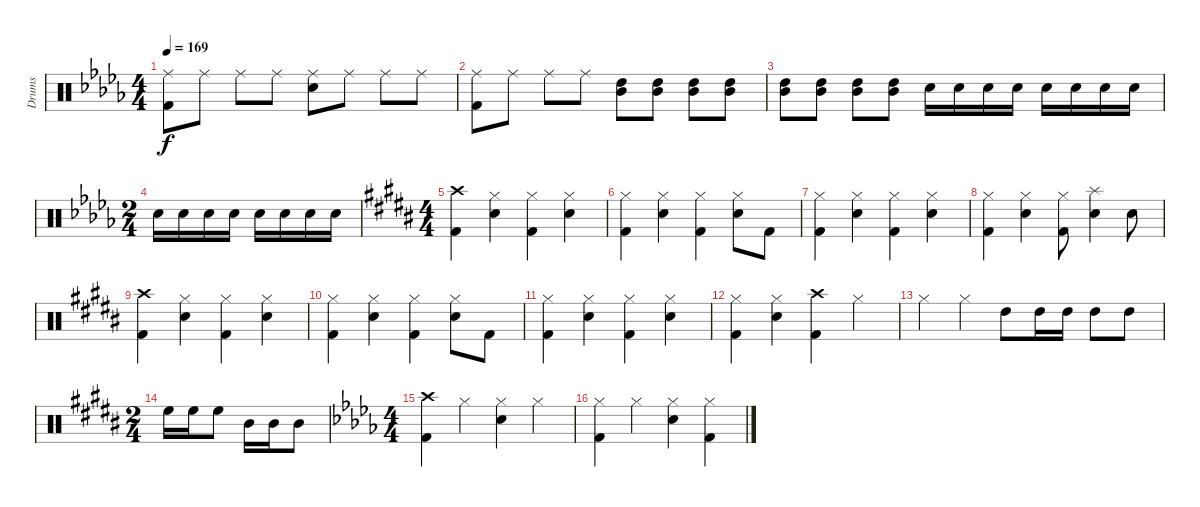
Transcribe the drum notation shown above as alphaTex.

\track ("Drums" "Drums") {instrument percussion}
\staff {score}
\articulation defaults
\ts (4 4)
\tempo 169
\clef neutral
\ks db
("Ride (middle)" "Kick (hit) 2").8{dy f} "Ride (middle)".8 "Ride (middle)".8 "Ride (middle)".8 ("Ride (middle)" "Snare (hit) 2").8 "Ride (middle)".8 "Ride (middle)".8 "Ride (middle)".8 |
("Ride (middle)" "Kick (hit) 2").8 "Ride (middle)".8 "Ride (middle)".8 "Ride (middle)".8 ("Mid Tom (hit)" "High Tom (hit)").8 ("Mid Tom (hit)" "High Tom (hit)").8 ("Mid Tom (hit)" "High Tom (hit)").8 ("Mid Tom (hit)" "High Tom (hit)").8 |
("Mid Tom (hit)" "High Tom (hit)").8 ("Mid Tom (hit)" "High Tom (hit)").8 ("Mid Tom (hit)" "High Tom (hit)").8 ("Mid Tom (hit)" "High Tom (hit)").8 "Snare (hit) 2".16 "Snare (hit) 2".16 "Snare (hit) 2".16 "Snare (hit) 2".16 "Snare (hit) 2".16 "Snare (hit) 2".16 "Snare (hit) 2".16 "Snare (hit) 2".16 |
\ts (2 4)
"Snare (hit) 2".16 "Snare (hit) 2".16 "Snare (hit) 2".16 "Snare (hit) 2".16 "Snare (hit) 2".16 "Snare (hit) 2".16 "Snare (hit) 2".16 "Snare (hit) 2".16 |
\ts (4 4)
\ks b
("Crash high (hit)" "Kick (hit) 2").4 ("Hi-Hat (closed)" "Snare (hit) 2").4 ("Hi-Hat (closed)" "Kick (hit) 2").4 ("Hi-Hat (closed)" "Snare (hit) 2").4 |
("Hi-Hat (closed)" "Kick (hit) 2").4 ("Hi-Hat (closed)" "Snare (hit) 2").4 ("Hi-Hat (closed)" "Kick (hit) 2").4 ("Hi-Hat (closed)" "Snare (hit) 2").8 "Kick (hit) 2".8 |
("Hi-Hat (closed)" "Kick (hit) 2").4 ("Hi-Hat (closed)" "Snare (hit) 2").4 ("Hi-Hat (closed)" "Kick (hit) 2").4 ("Hi-Hat (closed)" "Snare (hit) 2").4 |
("Hi-Hat (closed)" "Kick (hit) 2").4 ("Hi-Hat (closed)" "Snare (hit) 2").4 ("Hi-Hat (closed)" "Kick (hit) 2").8 ("Splash (hit)" "Snare (hit) 2").4 "Snare (hit) 2".8 |
("Crash high (hit)" "Kick (hit) 2").4 ("Hi-Hat (closed)" "Snare (hit) 2").4 ("Hi-Hat (closed)" "Kick (hit) 2").4 ("Hi-Hat (closed)" "Snare (hit) 2").4 |
("Hi-Hat (closed)" "Kick (hit) 2").4 ("Hi-Hat (closed)" "Snare (hit) 2").4 ("Hi-Hat (closed)" "Kick (hit) 2").4 ("Hi-Hat (closed)" "Snare (hit) 2").8 "Kick (hit) 2".8 |
("Hi-Hat (closed)" "Kick (hit) 2").4 ("Hi-Hat (closed)" "Snare (hit) 2").4 ("Hi-Hat (closed)" "Kick (hit) 2").4 ("Hi-Hat (closed)" "Snare (hit) 2").4 |
("Hi-Hat (closed)" "Kick (hit) 2").4 ("Hi-Hat (closed)" "Snare (hit) 2").4 ("Crash high (hit)" "Kick (hit) 2").4 "Hi-Hat (closed)".4 |
"Hi-Hat (closed)".4 "Hi-Hat (closed)".4 "High Tom (hit)".8 "High Tom (hit)".16 "High Tom (hit)".16 "High Tom (hit)".8 "High Tom (hit)".8 |
\ts (2 4)
"High Floor Tom (hit)".16 "High Floor Tom (hit)".16 "High Floor Tom (hit)".8 "Mid Tom (hit)".16 "Mid Tom (hit)".16 "Mid Tom (hit)".8 |
\ts (4 4)
\ks db
("Crash high (hit)" "Kick (hit) 2").4 "Hi-Hat (closed)".4 ("Hi-Hat (closed)" "Snare (hit) 2").4 "Hi-Hat (closed)".4 |
("Hi-Hat (closed)" "Kick (hit) 2").4 "Hi-Hat (closed)".4 ("Hi-Hat (closed)" "Snare (hit) 2").4 ("Hi-Hat (closed)" "Kick (hit) 2").4
